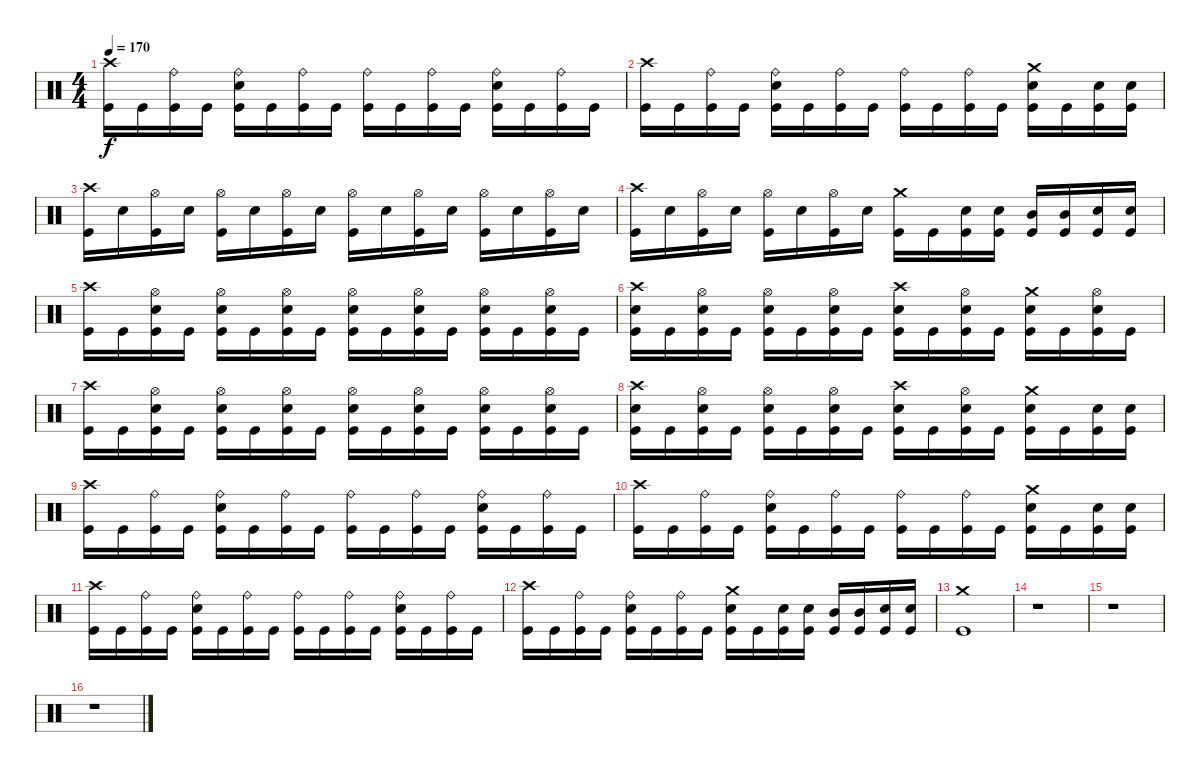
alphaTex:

\track "" {instrument percussion}
\staff {score}
\articulation defaults
\ts (4 4)
\tempo 170
\clef neutral
\ks c
("Crash high (hit)" "Kick (hit)").16{dy f} "Kick (hit)".16 ("Kick (hit)" "Ride (bell)").16 "Kick (hit)".16 ("Snare (hit) 2" "Ride (bell)" "Kick (hit)").16 "Kick (hit)".16 ("Kick (hit)" "Ride (bell)").16 "Kick (hit)".16 ("Ride (bell)" "Kick (hit)").16 "Kick (hit)".16 ("Ride (bell)" "Kick (hit)").16 "Kick (hit)".16 ("Ride (bell)" "Kick (hit)" "Snare (hit) 2").16 "Kick (hit)".16 ("Ride (bell)" "Kick (hit)").16 "Kick (hit)".16 |
("Crash high (hit)" "Kick (hit)").16 "Kick (hit)".16 ("Kick (hit)" "Ride (bell)").16 "Kick (hit)".16 ("Snare (hit) 2" "Ride (bell)" "Kick (hit)").16 "Kick (hit)".16 ("Kick (hit)" "Ride (bell)").16 "Kick (hit)".16 ("Ride (bell)" "Kick (hit)").16 "Kick (hit)".16 ("Ride (bell)" "Kick (hit)").16 "Kick (hit)".16 ("Crash medium (hit)" "Kick (hit)" "Snare (hit) 2").16 "Kick (hit)".16 ("Snare (hit) 2" "Kick (hit)").16 ("Snare (hit) 2" "Kick (hit)").16 |
("Crash high (hit)" "Kick (hit)").16 "Snare (hit) 2".16 ("Kick (hit)" "Hi-Hat (open)").16 "Snare (hit) 2".16 ("Hi-Hat (open)" "Kick (hit)").16 "Snare (hit) 2".16 ("Kick (hit)" "Hi-Hat (open)").16 "Snare (hit) 2".16 ("Hi-Hat (open)" "Kick (hit)").16 "Snare (hit) 2".16 ("Hi-Hat (open)" "Kick (hit)").16 "Snare (hit) 2".16 ("Hi-Hat (open)" "Kick (hit)").16 "Snare (hit) 2".16 ("Hi-Hat (open)" "Kick (hit)").16 "Snare (hit) 2".16 |
("Crash high (hit)" "Kick (hit)").16 "Snare (hit) 2".16 ("Kick (hit)" "Hi-Hat (open)").16 "Snare (hit) 2".16 ("Hi-Hat (open)" "Kick (hit)").16 "Snare (hit) 2".16 ("Kick (hit)" "Hi-Hat (open)").16 "Snare (hit) 2".16 ("Crash medium (hit)" "Kick (hit)").16 "Kick (hit)".16 ("Snare (hit) 2" "Kick (hit)").16 ("Snare (hit) 2" "Kick (hit)").16 ("Kick (hit)" "Mid Tom (hit)").16 ("Mid Tom (hit)" "Kick (hit)").16 ("Snare (hit) 2" "Kick (hit)").16 ("Snare (hit) 2" "Kick (hit)").16 |
("Kick (hit)" "Crash high (hit)").16 "Kick (hit)".16 ("Kick (hit)" "Snare (hit) 2" "Hi-Hat (open)").16 "Kick (hit)".16 ("Kick (hit)" "Hi-Hat (open)" "Snare (hit) 2").16 "Kick (hit)".16 ("Kick (hit)" "Hi-Hat (open)" "Snare (hit) 2").16 "Kick (hit)".16 ("Hi-Hat (open)" "Snare (hit) 2" "Kick (hit)").16 "Kick (hit)".16 ("Hi-Hat (open)" "Snare (hit) 2" "Kick (hit)").16 "Kick (hit)".16 ("Hi-Hat (open)" "Snare (hit) 2" "Kick (hit)").16 "Kick (hit)".16 ("Hi-Hat (open)" "Snare (hit) 2" "Kick (hit)").16 "Kick (hit)".16 |
("Crash high (hit)" "Snare (hit) 2" "Kick (hit)").16 "Kick (hit)".16 ("Hi-Hat (open)" "Snare (hit) 2" "Kick (hit)").16 "Kick (hit)".16 ("Kick (hit)" "Hi-Hat (open)" "Snare (hit) 2").16 "Kick (hit)".16 ("Kick (hit)" "Snare (hit) 2" "Hi-Hat (open)").16 "Kick (hit)".16 ("Crash high (hit)" "Snare (hit) 2" "Kick (hit)").16 "Kick (hit)".16 ("Snare (hit) 2" "Hi-Hat (open)" "Kick (hit)").16 "Kick (hit)".16 ("Kick (hit)" "Crash medium (hit)" "Snare (hit) 2").16 "Kick (hit)".16 ("Kick (hit)" "Hi-Hat (open)" "Snare (hit) 2").16 "Kick (hit)".16 |
("Kick (hit)" "Crash high (hit)").16 "Kick (hit)".16 ("Kick (hit)" "Snare (hit) 2" "Hi-Hat (open)").16 "Kick (hit)".16 ("Kick (hit)" "Hi-Hat (open)" "Snare (hit) 2").16 "Kick (hit)".16 ("Kick (hit)" "Hi-Hat (open)" "Snare (hit) 2").16 "Kick (hit)".16 ("Hi-Hat (open)" "Snare (hit) 2" "Kick (hit)").16 "Kick (hit)".16 ("Hi-Hat (open)" "Snare (hit) 2" "Kick (hit)").16 "Kick (hit)".16 ("Hi-Hat (open)" "Snare (hit) 2" "Kick (hit)").16 "Kick (hit)".16 ("Hi-Hat (open)" "Snare (hit) 2" "Kick (hit)").16 "Kick (hit)".16 |
("Crash high (hit)" "Snare (hit) 2" "Kick (hit)").16 "Kick (hit)".16 ("Hi-Hat (open)" "Snare (hit) 2" "Kick (hit)").16 "Kick (hit)".16 ("Kick (hit)" "Hi-Hat (open)" "Snare (hit) 2").16 "Kick (hit)".16 ("Kick (hit)" "Snare (hit) 2" "Hi-Hat (open)").16 "Kick (hit)".16 ("Crash high (hit)" "Snare (hit) 2" "Kick (hit)").16 "Kick (hit)".16 ("Snare (hit) 2" "Hi-Hat (open)" "Kick (hit)").16 "Kick (hit)".16 ("Kick (hit)" "Crash medium (hit)" "Snare (hit) 2").16 "Kick (hit)".16 ("Kick (hit)" "Snare (hit) 2").16 ("Snare (hit) 2" "Kick (hit)").16 |
("Crash high (hit)" "Kick (hit)").16 "Kick (hit)".16 ("Kick (hit)" "Ride (bell)").16 "Kick (hit)".16 ("Snare (hit) 2" "Ride (bell)" "Kick (hit)").16 "Kick (hit)".16 ("Kick (hit)" "Ride (bell)").16 "Kick (hit)".16 ("Ride (bell)" "Kick (hit)").16 "Kick (hit)".16 ("Ride (bell)" "Kick (hit)").16 "Kick (hit)".16 ("Ride (bell)" "Kick (hit)" "Snare (hit) 2").16 "Kick (hit)".16 ("Ride (bell)" "Kick (hit)").16 "Kick (hit)".16 |
("Crash high (hit)" "Kick (hit)").16 "Kick (hit)".16 ("Kick (hit)" "Ride (bell)").16 "Kick (hit)".16 ("Snare (hit) 2" "Ride (bell)" "Kick (hit)").16 "Kick (hit)".16 ("Kick (hit)" "Ride (bell)").16 "Kick (hit)".16 ("Ride (bell)" "Kick (hit)").16 "Kick (hit)".16 ("Ride (bell)" "Kick (hit)").16 "Kick (hit)".16 ("Crash medium (hit)" "Kick (hit)" "Snare (hit) 2").16 "Kick (hit)".16 ("Snare (hit) 2" "Kick (hit)").16 ("Snare (hit) 2" "Kick (hit)").16 |
("Crash high (hit)" "Kick (hit)").16 "Kick (hit)".16 ("Kick (hit)" "Ride (bell)").16 "Kick (hit)".16 ("Snare (hit) 2" "Ride (bell)" "Kick (hit)").16 "Kick (hit)".16 ("Kick (hit)" "Ride (bell)").16 "Kick (hit)".16 ("Ride (bell)" "Kick (hit)").16 "Kick (hit)".16 ("Ride (bell)" "Kick (hit)").16 "Kick (hit)".16 ("Ride (bell)" "Kick (hit)" "Snare (hit) 2").16 "Kick (hit)".16 ("Ride (bell)" "Kick (hit)").16 "Kick (hit)".16 |
("Crash high (hit)" "Kick (hit)").16 "Kick (hit)".16 ("Kick (hit)" "Ride (bell)").16 "Kick (hit)".16 ("Snare (hit) 2" "Ride (bell)" "Kick (hit)").16 "Kick (hit)".16 ("Kick (hit)" "Ride (bell)").16 "Kick (hit)".16 ("Snare (hit) 2" "Crash medium (hit)" "Kick (hit)").16 "Kick (hit)".16 ("Snare (hit) 2" "Kick (hit)").16 ("Snare (hit) 2" "Kick (hit)").16 ("Kick (hit)" "Mid Tom (hit)").16 ("Mid Tom (hit)" "Kick (hit)").16 ("Snare (hit) 2" "Kick (hit)").16 ("Snare (hit) 2" "Kick (hit)").16 |
("Kick (hit)" "Crash medium (hit)").1 |
r.1 |
r.1 |
r.1
